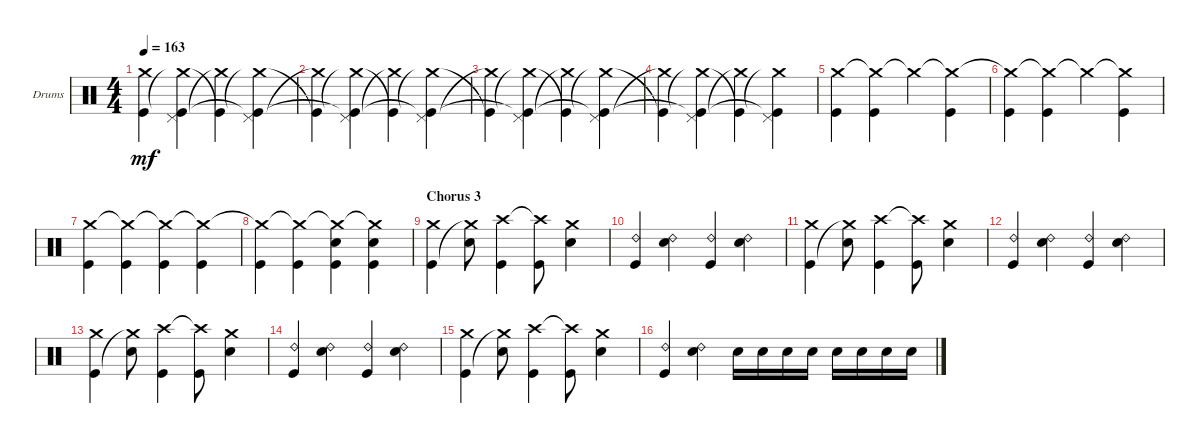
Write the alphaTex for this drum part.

\bracketExtendMode groupsimilarinstruments
\firstSystemTrackNameOrientation horizontal
\otherSystemsTrackNameOrientation horizontal
\track ("Drums" "Drums") {instrument percussion}
\staff {score}
\articulation defaults
\ts (4 4)
\tempo 163
\clef neutral
\scale
0.333333
\ks c
("Crash medium (hit)" "Kick (hit)").4{dy mf} ("Pedal Hi-Hat (hit)" "Crash medium (hit)"{t} "Kick (hit)"{t}).4 ("Crash medium (hit)"{t} "Kick (hit)"{t}).4 ("Pedal Hi-Hat (hit)" "Crash medium (hit)"{t} "Kick (hit)"{t}).4 |
\scale
0.333333 ("Crash medium (hit)"{t} "Kick (hit)"{t}).4 ("Pedal Hi-Hat (hit)" "Crash medium (hit)"{t} "Kick (hit)"{t}).4 ("Crash medium (hit)"{t} "Kick (hit)"{t}).4 ("Pedal Hi-Hat (hit)" "Crash medium (hit)"{t} "Kick (hit)"{t}).4 |
\scale
0.333333 ("Crash medium (hit)"{t} "Kick (hit)"{t}).4 ("Pedal Hi-Hat (hit)" "Crash medium (hit)"{t} "Kick (hit)"{t}).4 ("Crash medium (hit)"{t} "Kick (hit)"{t}).4 ("Pedal Hi-Hat (hit)" "Crash medium (hit)"{t} "Kick (hit)"{t}).4 |
\scale
0.333333 ("Crash medium (hit)"{t} "Kick (hit)"{t}).4 ("Pedal Hi-Hat (hit)" "Crash medium (hit)"{t} "Kick (hit)"{t}).4 ("Crash medium (hit)"{t} "Kick (hit)"{t}).4 ("Pedal Hi-Hat (hit)" "Crash medium (hit)"{t} "Kick (hit)"{t}).4 |
\scale
0.333333 ("Crash medium (hit)" "Kick (hit)").4 ("Crash medium (hit)"{t} "Kick (hit)").4 "Crash medium (hit)"{t}.4 ("Crash medium (hit)"{t} "Kick (hit)").4 |
\scale
0.333333 ("Crash medium (hit)"{t} "Kick (hit)").4 ("Crash medium (hit)"{t} "Kick (hit)").4 "Crash medium (hit)"{t}.4 ("Crash medium (hit)"{t} "Kick (hit)").4 |
\scale
0.333333 ("Crash medium (hit)" "Kick (hit)").4 ("Crash medium (hit)"{t} "Kick (hit)").4 ("Crash medium (hit)"{t} "Kick (hit)").4 ("Crash medium (hit)"{t} "Kick (hit)").4 |
\scale
0.333333 ("Crash medium (hit)"{t} "Kick (hit)").4 ("Crash medium (hit)"{t} "Kick (hit)").4 ("Crash medium (hit)"{t} "Kick (hit)" "Snare (hit) 2").4 ("Crash medium (hit)"{t} "Kick (hit)" "Snare (hit) 2").4 |
\section ("" "Chorus 3")
\scale
0.333333 ("Crash medium (hit)" "Kick (hit)").4 ("Snare (hit) 2" "Crash medium (hit)"{t}).8 ("Kick (hit)" "Crash high (hit)").4 ("Kick (hit)" "Crash high (hit)"{t}).8 ("Snare (hit) 2" "Crash medium (hit)").4 |
\scale
0.333333 ("Ride (bell) 2" "Kick (hit)").4 ("Ride (bell) 2" "Snare (hit) 2").4 ("Ride (bell) 2" "Kick (hit)").4 ("Ride (bell) 2" "Snare (hit) 2").4 |
\scale
0.333333 ("Crash medium (hit)" "Kick (hit)").4 ("Snare (hit) 2" "Crash medium (hit)"{t}).8 ("Kick (hit)" "Crash high (hit)").4 ("Kick (hit)" "Crash high (hit)"{t}).8 ("Snare (hit) 2" "Crash medium (hit)").4 |
\scale
0.333333 ("Ride (bell) 2" "Kick (hit)").4 ("Ride (bell) 2" "Snare (hit) 2").4 ("Ride (bell) 2" "Kick (hit)").4 ("Ride (bell) 2" "Snare (hit) 2").4 |
\scale
0.333333 ("Crash medium (hit)" "Kick (hit)").4 ("Snare (hit) 2" "Crash medium (hit)"{t}).8 ("Kick (hit)" "Crash high (hit)").4 ("Kick (hit)" "Crash high (hit)"{t}).8 ("Snare (hit) 2" "Crash medium (hit)").4 |
\scale
0.333333 ("Ride (bell) 2" "Kick (hit)").4 ("Ride (bell) 2" "Snare (hit) 2").4 ("Ride (bell) 2" "Kick (hit)").4 ("Ride (bell) 2" "Snare (hit) 2").4 |
("Crash medium (hit)" "Kick (hit)").4 ("Snare (hit) 2" "Crash medium (hit)"{t}).8 ("Kick (hit)" "Crash high (hit)").4 ("Kick (hit)" "Crash high (hit)"{t}).8 ("Snare (hit) 2" "Crash medium (hit)").4 |
("Ride (bell) 2" "Kick (hit)").4 ("Ride (bell) 2" "Snare (hit) 2").4 "Snare (hit) 2".16 "Snare (hit) 2".16 "Snare (hit) 2".16 "Snare (hit) 2".16 "Snare (hit) 2".16 "Snare (hit) 2".16 "Snare (hit) 2".16 "Snare (hit) 2".16
